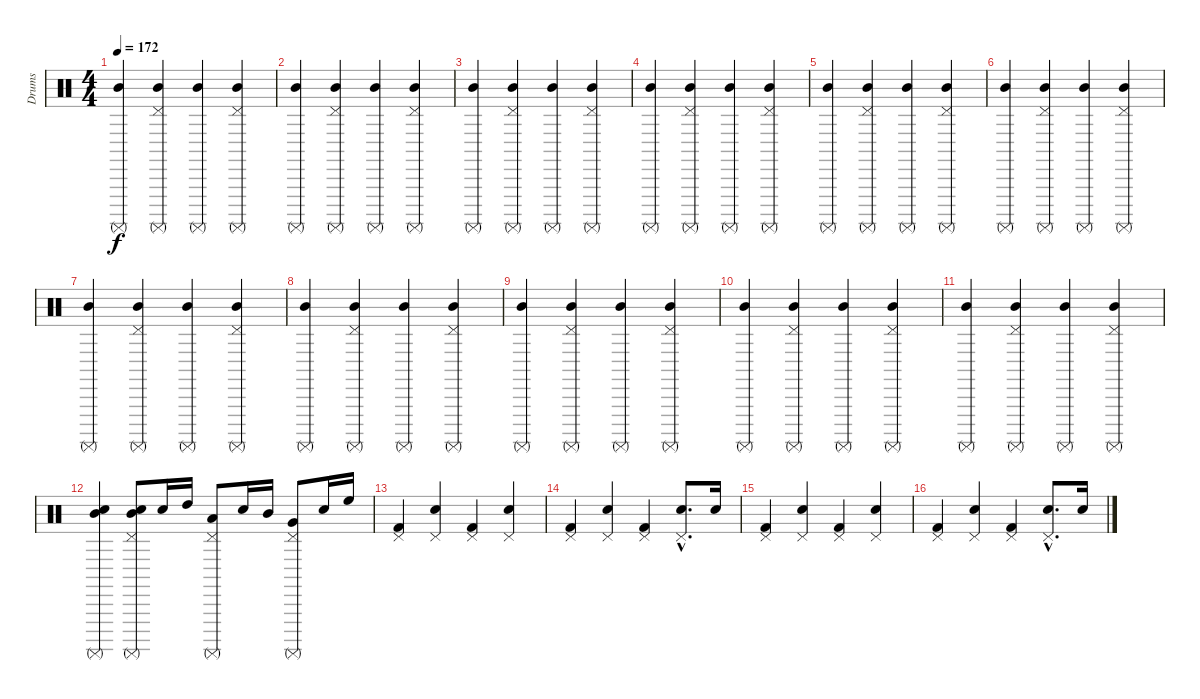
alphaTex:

\track ("Drums" "Drums") {instrument percussion}
\staff {score}
\articulation defaults
\ts (4 4)
\tempo 172
\clef neutral
\ks c
("Surdo (mute)" "Mid Tom (hit)").4{dy f volume 10} ("Pedal Hi-Hat (hit)" "Surdo (mute)" "Mid Tom (hit)").4 ("Surdo (mute)" "Mid Tom (hit)").4 ("Pedal Hi-Hat (hit)" "Surdo (mute)" "Mid Tom (hit)").4 |
("Surdo (mute)" "Mid Tom (hit)").4 ("Pedal Hi-Hat (hit)" "Surdo (mute)" "Mid Tom (hit)").4 ("Surdo (mute)" "Mid Tom (hit)").4 ("Pedal Hi-Hat (hit)" "Surdo (mute)" "Mid Tom (hit)").4 |
("Surdo (mute)" "Mid Tom (hit)").4 ("Pedal Hi-Hat (hit)" "Surdo (mute)" "Mid Tom (hit)").4 ("Surdo (mute)" "Mid Tom (hit)").4 ("Pedal Hi-Hat (hit)" "Surdo (mute)" "Mid Tom (hit)").4 |
("Surdo (mute)" "Mid Tom (hit)").4 ("Pedal Hi-Hat (hit)" "Surdo (mute)" "Mid Tom (hit)").4 ("Surdo (mute)" "Mid Tom (hit)").4 ("Pedal Hi-Hat (hit)" "Surdo (mute)" "Mid Tom (hit)").4 |
("Surdo (mute)" "Mid Tom (hit)").4 ("Pedal Hi-Hat (hit)" "Surdo (mute)" "Mid Tom (hit)").4 ("Surdo (mute)" "Mid Tom (hit)").4 ("Pedal Hi-Hat (hit)" "Surdo (mute)" "Mid Tom (hit)").4 |
("Surdo (mute)" "Mid Tom (hit)").4 ("Pedal Hi-Hat (hit)" "Surdo (mute)" "Mid Tom (hit)").4 ("Surdo (mute)" "Mid Tom (hit)").4 ("Pedal Hi-Hat (hit)" "Surdo (mute)" "Mid Tom (hit)").4 |
("Surdo (mute)" "Mid Tom (hit)").4 ("Pedal Hi-Hat (hit)" "Surdo (mute)" "Mid Tom (hit)").4 ("Surdo (mute)" "Mid Tom (hit)").4 ("Pedal Hi-Hat (hit)" "Surdo (mute)" "Mid Tom (hit)").4 |
("Surdo (mute)" "Mid Tom (hit)").4 ("Pedal Hi-Hat (hit)" "Surdo (mute)" "Mid Tom (hit)").4 ("Surdo (mute)" "Mid Tom (hit)").4 ("Pedal Hi-Hat (hit)" "Surdo (mute)" "Mid Tom (hit)").4 |
("Surdo (mute)" "Mid Tom (hit)").4 ("Pedal Hi-Hat (hit)" "Surdo (mute)" "Mid Tom (hit)").4 ("Surdo (mute)" "Mid Tom (hit)").4 ("Pedal Hi-Hat (hit)" "Surdo (mute)" "Mid Tom (hit)").4 |
("Surdo (mute)" "Mid Tom (hit)").4 ("Pedal Hi-Hat (hit)" "Surdo (mute)" "Mid Tom (hit)").4 ("Surdo (mute)" "Mid Tom (hit)").4 ("Pedal Hi-Hat (hit)" "Surdo (mute)" "Mid Tom (hit)").4 |
("Surdo (mute)" "Mid Tom (hit)").4 ("Pedal Hi-Hat (hit)" "Surdo (mute)" "Mid Tom (hit)").4 ("Surdo (mute)" "Mid Tom (hit)").4 ("Pedal Hi-Hat (hit)" "Surdo (mute)" "Mid Tom (hit)").4 |
("Snare (hit) 2" "Surdo (mute)" "Mid Tom (hit)").4 ("Pedal Hi-Hat (hit)" "Snare (hit) 2" "Surdo (mute)" "Mid Tom (hit)").8 "Snare (hit) 2".16 "High Tom (hit)".16 ("Pedal Hi-Hat (hit)" "Low Tom (hit)" "Surdo (mute)").8 "Snare (hit) 2".16 "Mid Tom (hit)".16 ("Pedal Hi-Hat (hit)" "Very Low Tom (hit)" "Surdo (mute)").8 "Snare (hit) 2".16 "High Floor Tom (hit)".16 |
("Pedal Hi-Hat (hit)" "Kick (hit) 2").4{volume 14} ("Pedal Hi-Hat (hit)" "Snare (hit) 2").4 ("Pedal Hi-Hat (hit)" "Kick (hit) 2").4 ("Pedal Hi-Hat (hit)" "Snare (hit) 2").4 |
("Pedal Hi-Hat (hit)" "Kick (hit) 2").4 ("Pedal Hi-Hat (hit)" "Snare (hit) 2").4 ("Pedal Hi-Hat (hit)" "Kick (hit) 2").4 ("Pedal Hi-Hat (hit)"{hac} "Snare (hit) 2"{hac}).8{d} "Electric Snare (hit)".16 |
("Pedal Hi-Hat (hit)" "Kick (hit) 2").4 ("Pedal Hi-Hat (hit)" "Snare (hit) 2").4 ("Pedal Hi-Hat (hit)" "Kick (hit) 2").4 ("Pedal Hi-Hat (hit)" "Snare (hit) 2").4 |
("Pedal Hi-Hat (hit)" "Kick (hit) 2").4 ("Pedal Hi-Hat (hit)" "Snare (hit) 2").4 ("Pedal Hi-Hat (hit)" "Kick (hit) 2").4 ("Pedal Hi-Hat (hit)"{hac} "Snare (hit) 2"{hac}).8{d} "Electric Snare (hit)".16
